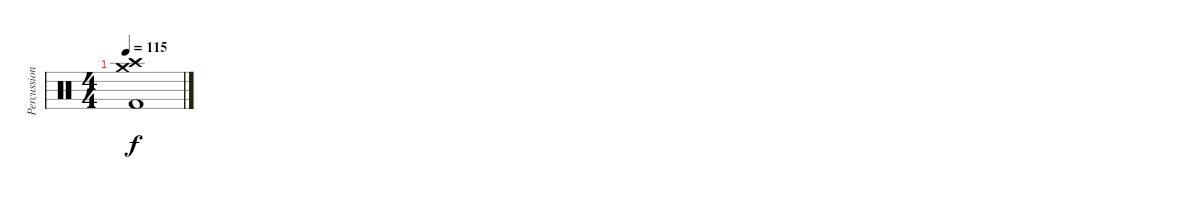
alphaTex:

\track ("Percussion" "Percussion") {instrument percussion}
\staff {score}
\articulation defaults
\ts (4 4)
\tempo 115
\clef neutral
\ks c
("Crash medium (hit)" "Crash high (hit)" "Kick (hit) 2").1{dy f}
